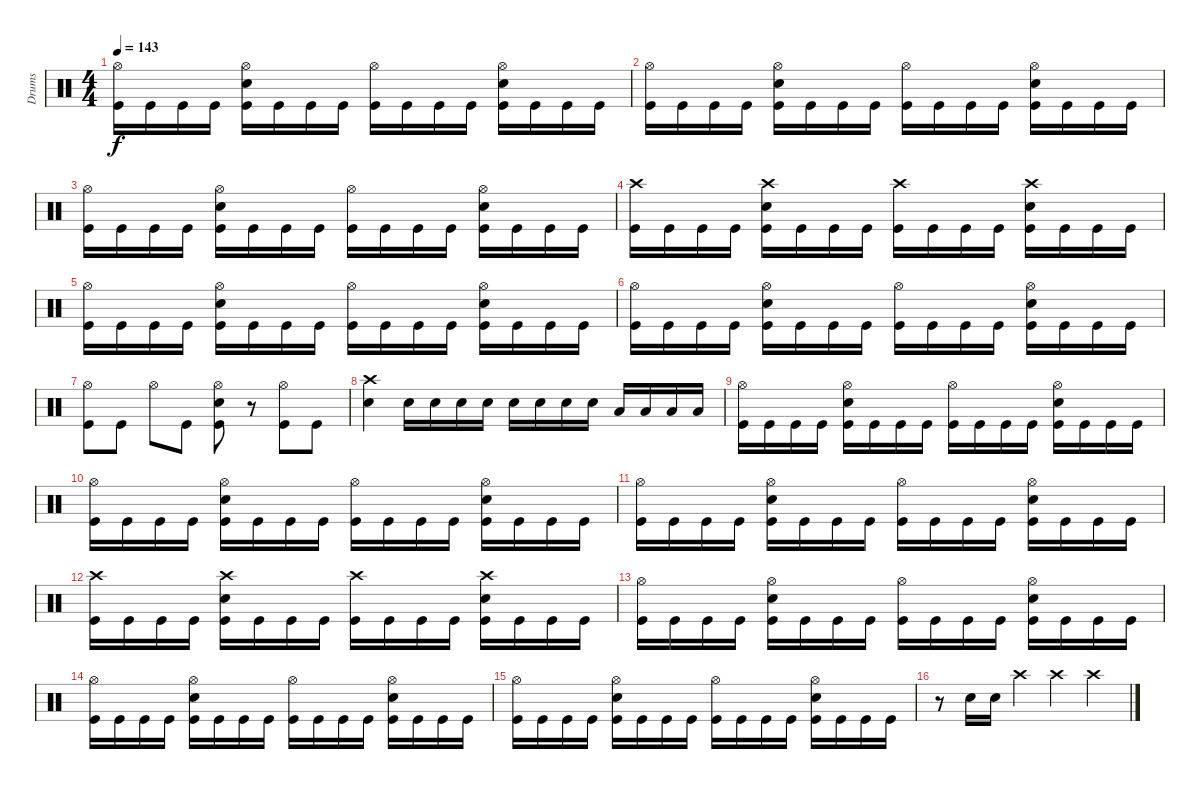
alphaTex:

\track ("Drums" "Drums") {instrument percussion}
\staff {score}
\articulation defaults
\ts (4 4)
\tempo 143
\clef neutral
\ks c
("Hi-Hat (open)" "Kick (hit)").16{dy f} "Kick (hit)".16 "Kick (hit)".16 "Kick (hit)".16 ("Hi-Hat (open)" "Snare (hit) 2" "Kick (hit)").16 "Kick (hit)".16 "Kick (hit)".16 "Kick (hit)".16 ("Hi-Hat (open)" "Kick (hit)").16 "Kick (hit)".16 "Kick (hit)".16 "Kick (hit)".16 ("Hi-Hat (open)" "Snare (hit) 2" "Kick (hit)").16 "Kick (hit)".16 "Kick (hit)".16 "Kick (hit)".16 |
("Hi-Hat (open)" "Kick (hit)").16 "Kick (hit)".16 "Kick (hit)".16 "Kick (hit)".16 ("Hi-Hat (open)" "Snare (hit) 2" "Kick (hit)").16 "Kick (hit)".16 "Kick (hit)".16 "Kick (hit)".16 ("Hi-Hat (open)" "Kick (hit)").16 "Kick (hit)".16 "Kick (hit)".16 "Kick (hit)".16 ("Hi-Hat (open)" "Snare (hit) 2" "Kick (hit)").16 "Kick (hit)".16 "Kick (hit)".16 "Kick (hit)".16 |
("Hi-Hat (open)" "Kick (hit)").16 "Kick (hit)".16 "Kick (hit)".16 "Kick (hit)".16 ("Hi-Hat (open)" "Snare (hit) 2" "Kick (hit)").16 "Kick (hit)".16 "Kick (hit)".16 "Kick (hit)".16 ("Hi-Hat (open)" "Kick (hit)").16 "Kick (hit)".16 "Kick (hit)".16 "Kick (hit)".16 ("Hi-Hat (open)" "Snare (hit) 2" "Kick (hit)").16 "Kick (hit)".16 "Kick (hit)".16 "Kick (hit)".16 |
("Crash high (hit)" "Kick (hit)").16 "Kick (hit)".16 "Kick (hit)".16 "Kick (hit)".16 ("Crash high (hit)" "Snare (hit) 2" "Kick (hit)").16 "Kick (hit)".16 "Kick (hit)".16 "Kick (hit)".16 ("Crash high (hit)" "Kick (hit)").16 "Kick (hit)".16 "Kick (hit)".16 "Kick (hit)".16 ("Crash high (hit)" "Snare (hit) 2" "Kick (hit)").16 "Kick (hit)".16 "Kick (hit)".16 "Kick (hit)".16 |
("Hi-Hat (open)" "Kick (hit)").16 "Kick (hit)".16 "Kick (hit)".16 "Kick (hit)".16 ("Hi-Hat (open)" "Snare (hit) 2" "Kick (hit)").16 "Kick (hit)".16 "Kick (hit)".16 "Kick (hit)".16 ("Hi-Hat (open)" "Kick (hit)").16 "Kick (hit)".16 "Kick (hit)".16 "Kick (hit)".16 ("Hi-Hat (open)" "Snare (hit) 2" "Kick (hit)").16 "Kick (hit)".16 "Kick (hit)".16 "Kick (hit)".16 |
("Hi-Hat (open)" "Kick (hit)").16 "Kick (hit)".16 "Kick (hit)".16 "Kick (hit)".16 ("Hi-Hat (open)" "Snare (hit) 2" "Kick (hit)").16 "Kick (hit)".16 "Kick (hit)".16 "Kick (hit)".16 ("Hi-Hat (open)" "Kick (hit)").16 "Kick (hit)".16 "Kick (hit)".16 "Kick (hit)".16 ("Hi-Hat (open)" "Snare (hit) 2" "Kick (hit)").16 "Kick (hit)".16 "Kick (hit)".16 "Kick (hit)".16 |
("Hi-Hat (open)" "Kick (hit)").8 "Kick (hit)".8 "Hi-Hat (open)".8 "Kick (hit)".8 ("Hi-Hat (open)" "Snare (hit) 2" "Kick (hit)").8 r.8 ("Hi-Hat (open)" "Kick (hit)").8 "Kick (hit)".8 |
("Crash high (hit)" "Snare (hit) 2").4 "Snare (hit) 2".16 "Snare (hit) 2".16 "Snare (hit) 2".16 "Snare (hit) 2".16 "Snare (hit) 2".16 "Snare (hit) 2".16 "Snare (hit) 2".16 "Snare (hit) 2".16 "Low Tom (hit)".16 "Low Tom (hit)".16 "Low Tom (hit)".16 "Low Tom (hit)".16 |
("Hi-Hat (open)" "Kick (hit)").16 "Kick (hit)".16 "Kick (hit)".16 "Kick (hit)".16 ("Hi-Hat (open)" "Snare (hit) 2" "Kick (hit)").16 "Kick (hit)".16 "Kick (hit)".16 "Kick (hit)".16 ("Hi-Hat (open)" "Kick (hit)").16 "Kick (hit)".16 "Kick (hit)".16 "Kick (hit)".16 ("Hi-Hat (open)" "Snare (hit) 2" "Kick (hit)").16 "Kick (hit)".16 "Kick (hit)".16 "Kick (hit)".16 |
("Hi-Hat (open)" "Kick (hit)").16 "Kick (hit)".16 "Kick (hit)".16 "Kick (hit)".16 ("Hi-Hat (open)" "Snare (hit) 2" "Kick (hit)").16 "Kick (hit)".16 "Kick (hit)".16 "Kick (hit)".16 ("Hi-Hat (open)" "Kick (hit)").16 "Kick (hit)".16 "Kick (hit)".16 "Kick (hit)".16 ("Hi-Hat (open)" "Snare (hit) 2" "Kick (hit)").16 "Kick (hit)".16 "Kick (hit)".16 "Kick (hit)".16 |
("Hi-Hat (open)" "Kick (hit)").16 "Kick (hit)".16 "Kick (hit)".16 "Kick (hit)".16 ("Hi-Hat (open)" "Snare (hit) 2" "Kick (hit)").16 "Kick (hit)".16 "Kick (hit)".16 "Kick (hit)".16 ("Hi-Hat (open)" "Kick (hit)").16 "Kick (hit)".16 "Kick (hit)".16 "Kick (hit)".16 ("Hi-Hat (open)" "Snare (hit) 2" "Kick (hit)").16 "Kick (hit)".16 "Kick (hit)".16 "Kick (hit)".16 |
("Crash high (hit)" "Kick (hit)").16 "Kick (hit)".16 "Kick (hit)".16 "Kick (hit)".16 ("Crash high (hit)" "Snare (hit) 2" "Kick (hit)").16 "Kick (hit)".16 "Kick (hit)".16 "Kick (hit)".16 ("Crash high (hit)" "Kick (hit)").16 "Kick (hit)".16 "Kick (hit)".16 "Kick (hit)".16 ("Crash high (hit)" "Snare (hit) 2" "Kick (hit)").16 "Kick (hit)".16 "Kick (hit)".16 "Kick (hit)".16 |
("Hi-Hat (open)" "Kick (hit)").16 "Kick (hit)".16 "Kick (hit)".16 "Kick (hit)".16 ("Hi-Hat (open)" "Snare (hit) 2" "Kick (hit)").16 "Kick (hit)".16 "Kick (hit)".16 "Kick (hit)".16 ("Hi-Hat (open)" "Kick (hit)").16 "Kick (hit)".16 "Kick (hit)".16 "Kick (hit)".16 ("Hi-Hat (open)" "Snare (hit) 2" "Kick (hit)").16 "Kick (hit)".16 "Kick (hit)".16 "Kick (hit)".16 |
("Hi-Hat (open)" "Kick (hit)").16 "Kick (hit)".16 "Kick (hit)".16 "Kick (hit)".16 ("Hi-Hat (open)" "Snare (hit) 2" "Kick (hit)").16 "Kick (hit)".16 "Kick (hit)".16 "Kick (hit)".16 ("Hi-Hat (open)" "Kick (hit)").16 "Kick (hit)".16 "Kick (hit)".16 "Kick (hit)".16 ("Hi-Hat (open)" "Snare (hit) 2" "Kick (hit)").16 "Kick (hit)".16 "Kick (hit)".16 "Kick (hit)".16 |
("Hi-Hat (open)" "Kick (hit)").16 "Kick (hit)".16 "Kick (hit)".16 "Kick (hit)".16 ("Hi-Hat (open)" "Snare (hit) 2" "Kick (hit)").16 "Kick (hit)".16 "Kick (hit)".16 "Kick (hit)".16 ("Hi-Hat (open)" "Kick (hit)").16 "Kick (hit)".16 "Kick (hit)".16 "Kick (hit)".16 ("Hi-Hat (open)" "Snare (hit) 2" "Kick (hit)").16 "Kick (hit)".16 "Kick (hit)".16 "Kick (hit)".16 |
r.8 "Snare (hit) 2".16 "Snare (hit) 2".16 "Crash high (hit)".4 "Crash high (hit)".4 "Crash high (hit)".4
